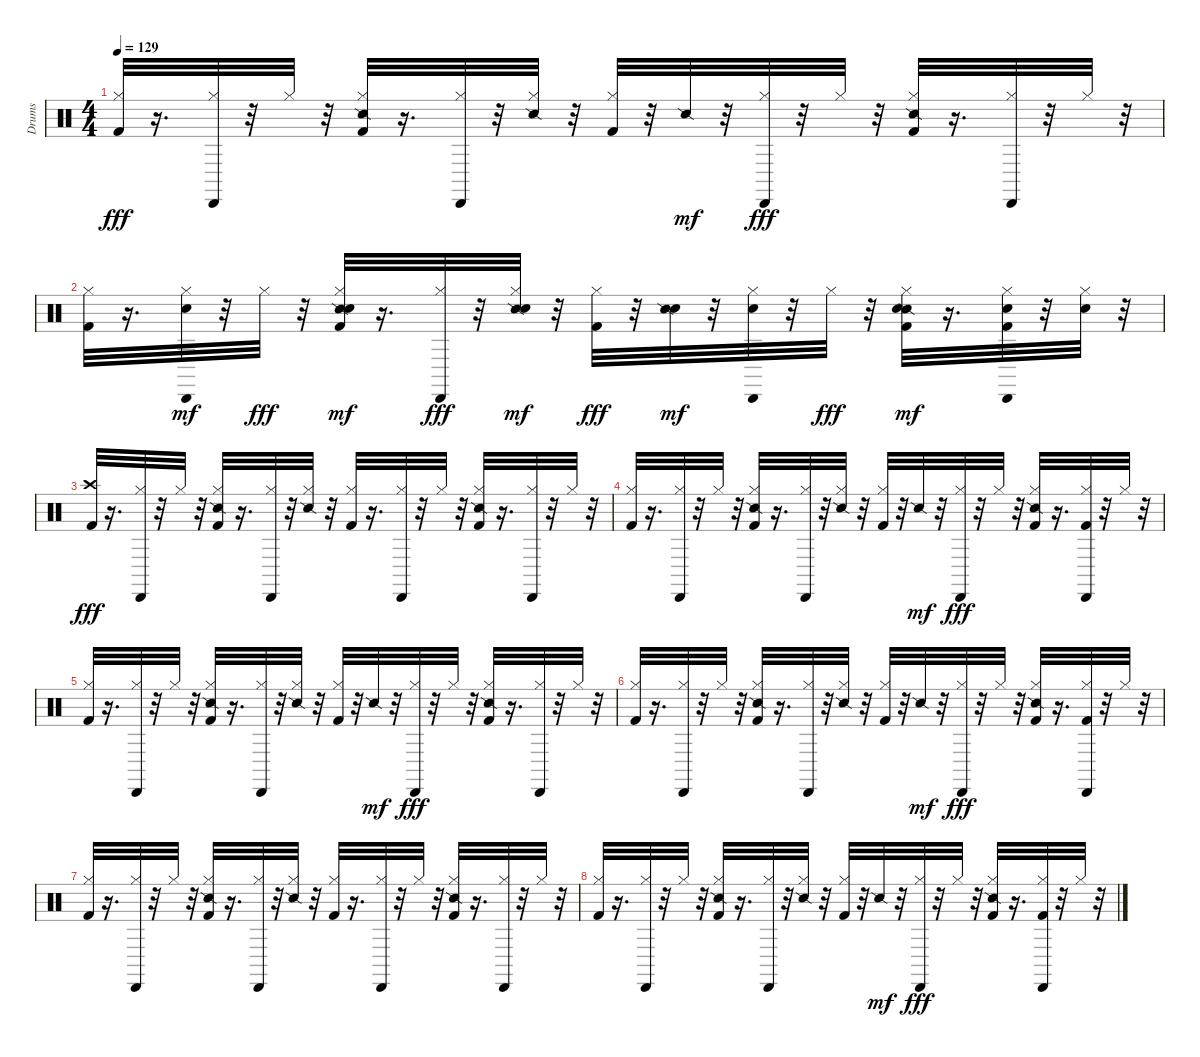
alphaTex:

\track ("Drums" "Drums") {instrument percussion}
\staff {score}
\articulation defaults
\ts (4 4)
\tempo 129
\clef neutral
\ks c
("Kick (hit) 2" "Hi-Hat (closed)").32{dy fff} r.16{d} ("Cabasa (hit)" "Hi-Hat (closed)").32 r.32 "Hi-Hat (closed)".32 r.32 ("Snare (side stick) 2" "Hi-Hat (closed)" "Kick (hit) 2").32 r.16{d} ("Cabasa (hit)" "Hi-Hat (closed)").32 r.32 ("Snare (side stick) 2" "Hi-Hat (closed)").32 r.32 ("Kick (hit) 2" "Hi-Hat (closed)").32 r.32 "Snare (side stick) 2".32{dy mf} r.32 ("Cabasa (hit)" "Hi-Hat (closed)").32{dy fff} r.32 "Hi-Hat (closed)".32 r.32 ("Snare (side stick) 2" "Hi-Hat (closed)" "Kick (hit) 2").32 r.16{d} ("Cabasa (hit)" "Hi-Hat (closed)").32 r.32 "Hi-Hat (closed)".32 r.32 |
("Kick (hit) 2" "Hi-Hat (closed)").32 r.16{d} ("Cabasa (hit)" "Hi-Hat (closed)" "Hand Clap (hit)").32{dy mf} r.32 "Hi-Hat (closed)".32{dy fff} r.32 ("Snare (side stick) 2" "Hi-Hat (closed)" "Kick (hit) 2" "Hand Clap (hit)").32{dy mf} r.16{d} ("Cabasa (hit)" "Hi-Hat (closed)").32{dy fff} r.32 ("Snare (side stick) 2" "Hi-Hat (closed)" "Hand Clap (hit)").32{dy mf} r.32 ("Kick (hit) 2" "Hi-Hat (closed)").32{dy fff} r.32 ("Hand Clap (hit)" "Snare (side stick) 2").32{dy mf} r.32 ("Cabasa (hit)" "Hi-Hat (closed)" "Hand Clap (hit)").32 r.32 "Hi-Hat (closed)".32{dy fff} r.32 ("Snare (side stick) 2" "Hi-Hat (closed)" "Kick (hit) 2" "Hand Clap (hit)").32{dy mf} r.16{d} ("Kick (hit) 2" "Cabasa (hit)" "Hi-Hat (closed)" "Hand Clap (hit)").32 r.32 ("Hi-Hat (closed)" "Hand Clap (hit)").32 r.32 |
("Kick (hit) 2" "Crash high (hit)").32{dy fff} r.16{d} ("Cabasa (hit)" "Hi-Hat (closed)").32 r.32 "Hi-Hat (closed)".32 r.32 ("Snare (side stick) 2" "Hi-Hat (closed)" "Kick (hit) 2").32 r.16{d} ("Cabasa (hit)" "Hi-Hat (closed)").32 r.32 ("Snare (side stick) 2" "Hi-Hat (closed)").32 r.32 ("Kick (hit) 2" "Hi-Hat (closed)").32 r.16{d} ("Cabasa (hit)" "Hi-Hat (closed)").32 r.32 "Hi-Hat (closed)".32 r.32 ("Snare (side stick) 2" "Hi-Hat (closed)" "Kick (hit) 2").32 r.16{d} ("Cabasa (hit)" "Hi-Hat (closed)").32 r.32 "Hi-Hat (closed)".32 r.32 |
("Kick (hit) 2" "Hi-Hat (closed)").32 r.16{d} ("Cabasa (hit)" "Hi-Hat (closed)").32 r.32 "Hi-Hat (closed)".32 r.32 ("Snare (side stick) 2" "Hi-Hat (closed)" "Kick (hit) 2").32 r.16{d} ("Cabasa (hit)" "Hi-Hat (closed)").32 r.32 ("Snare (side stick) 2" "Hi-Hat (closed)").32 r.32 ("Kick (hit) 2" "Hi-Hat (closed)").32 r.32 "Snare (side stick) 2".32{dy mf} r.32 ("Cabasa (hit)" "Hi-Hat (closed)").32{dy fff} r.32 "Hi-Hat (closed)".32 r.32 ("Snare (side stick) 2" "Hi-Hat (closed)" "Kick (hit) 2").32 r.16{d} ("Kick (hit) 2" "Cabasa (hit)" "Hi-Hat (closed)").32 r.32 "Hi-Hat (closed)".32 r.32 |
("Kick (hit) 2" "Hi-Hat (closed)").32 r.16{d} ("Cabasa (hit)" "Hi-Hat (closed)").32 r.32 "Hi-Hat (closed)".32 r.32 ("Snare (side stick) 2" "Hi-Hat (closed)" "Kick (hit) 2").32 r.16{d} ("Cabasa (hit)" "Hi-Hat (closed)").32 r.32 ("Snare (side stick) 2" "Hi-Hat (closed)").32 r.32 ("Kick (hit) 2" "Hi-Hat (closed)").32 r.32 "Snare (side stick) 2".32{dy mf} r.32 ("Cabasa (hit)" "Hi-Hat (closed)").32{dy fff} r.32 "Hi-Hat (closed)".32 r.32 ("Snare (side stick) 2" "Hi-Hat (closed)" "Kick (hit) 2").32 r.16{d} ("Cabasa (hit)" "Hi-Hat (closed)").32 r.32 "Hi-Hat (closed)".32 r.32 |
("Kick (hit) 2" "Hi-Hat (closed)").32 r.16{d} ("Cabasa (hit)" "Hi-Hat (closed)").32 r.32 "Hi-Hat (closed)".32 r.32 ("Snare (side stick) 2" "Hi-Hat (closed)" "Kick (hit) 2").32 r.16{d} ("Cabasa (hit)" "Hi-Hat (closed)").32 r.32 ("Snare (side stick) 2" "Hi-Hat (closed)").32 r.32 ("Kick (hit) 2" "Hi-Hat (closed)").32 r.32 "Snare (side stick) 2".32{dy mf} r.32 ("Cabasa (hit)" "Hi-Hat (closed)").32{dy fff} r.32 "Hi-Hat (closed)".32 r.32 ("Snare (side stick) 2" "Hi-Hat (closed)" "Kick (hit) 2").32 r.16{d} ("Kick (hit) 2" "Cabasa (hit)" "Hi-Hat (closed)").32 r.32 "Hi-Hat (closed)".32 r.32 |
("Kick (hit) 2" "Hi-Hat (closed)").32 r.16{d} ("Cabasa (hit)" "Hi-Hat (closed)").32 r.32 "Hi-Hat (closed)".32 r.32 ("Snare (side stick) 2" "Hi-Hat (closed)" "Kick (hit) 2").32 r.16{d} ("Cabasa (hit)" "Hi-Hat (closed)").32 r.32 ("Snare (side stick) 2" "Hi-Hat (closed)").32 r.32 ("Kick (hit) 2" "Hi-Hat (closed)").32 r.16{d} ("Cabasa (hit)" "Hi-Hat (closed)").32 r.32 "Hi-Hat (closed)".32 r.32 ("Snare (side stick) 2" "Hi-Hat (closed)" "Kick (hit) 2").32 r.16{d} ("Cabasa (hit)" "Hi-Hat (closed)").32 r.32 "Hi-Hat (closed)".32 r.32 |
("Kick (hit) 2" "Hi-Hat (closed)").32 r.16{d} ("Cabasa (hit)" "Hi-Hat (closed)").32 r.32 "Hi-Hat (closed)".32 r.32 ("Snare (side stick) 2" "Hi-Hat (closed)" "Kick (hit) 2").32 r.16{d} ("Cabasa (hit)" "Hi-Hat (closed)").32 r.32 ("Snare (side stick) 2" "Hi-Hat (closed)").32 r.32 ("Kick (hit) 2" "Hi-Hat (closed)").32 r.32 "Snare (side stick) 2".32{dy mf} r.32 ("Cabasa (hit)" "Hi-Hat (closed)").32{dy fff} r.32 "Hi-Hat (closed)".32 r.32 ("Snare (side stick) 2" "Hi-Hat (closed)" "Kick (hit) 2").32 r.16{d} ("Kick (hit) 2" "Cabasa (hit)" "Hi-Hat (closed)").32 r.32 "Hi-Hat (closed)".32 r.32
